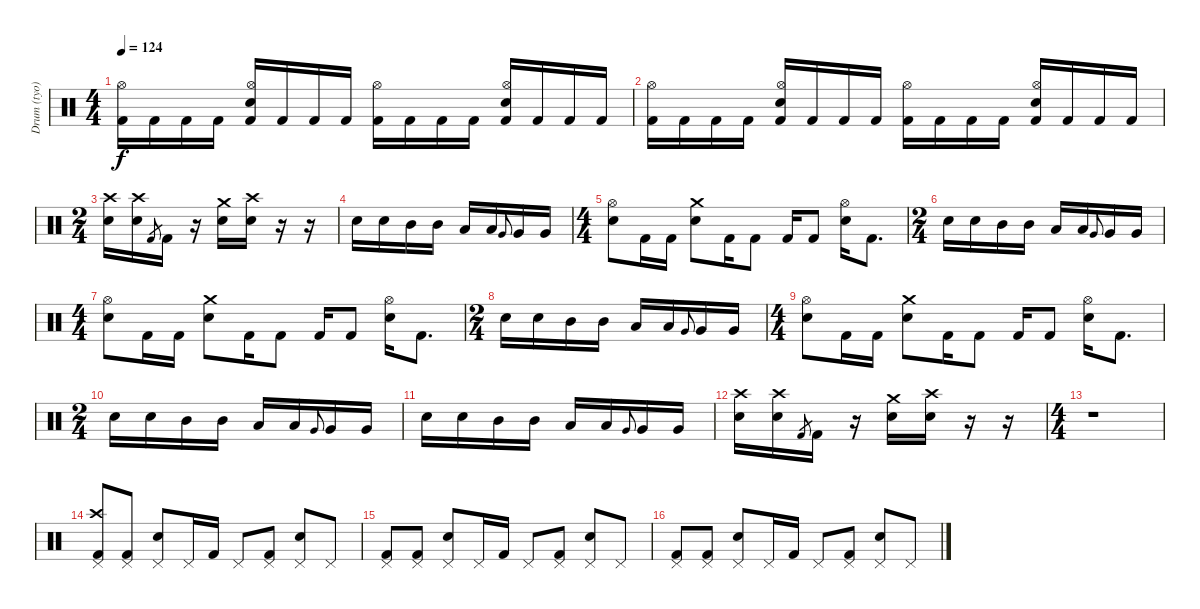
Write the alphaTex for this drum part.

\track ("Drum (tyo)" "Drum (tyo)") {instrument percussion}
\staff {score}
\articulation defaults
\ts (4 4)
\tempo 124
\clef neutral
\ks c
("Kick (hit) 2" "Hi-Hat (open)").16{dy f} "Kick (hit) 2".16 "Kick (hit) 2".16 "Kick (hit) 2".16 ("Kick (hit) 2" "Electric Snare (hit)" "Hi-Hat (open)").16 "Kick (hit) 2".16 "Kick (hit) 2".16 "Kick (hit) 2".16 ("Kick (hit) 2" "Hi-Hat (open)").16 "Kick (hit) 2".16 "Kick (hit) 2".16 "Kick (hit) 2".16 ("Kick (hit) 2" "Hi-Hat (open)" "Electric Snare (hit)").16 "Kick (hit) 2".16 "Kick (hit) 2".16 "Kick (hit) 2".16 |
("Kick (hit) 2" "Hi-Hat (open)").16 "Kick (hit) 2".16 "Kick (hit) 2".16 "Kick (hit) 2".16 ("Kick (hit) 2" "Electric Snare (hit)" "Hi-Hat (open)").16 "Kick (hit) 2".16 "Kick (hit) 2".16 "Kick (hit) 2".16 ("Kick (hit) 2" "Hi-Hat (open)").16 "Kick (hit) 2".16 "Kick (hit) 2".16 "Kick (hit) 2".16 ("Kick (hit) 2" "Hi-Hat (open)" "Electric Snare (hit)").16 "Kick (hit) 2".16 "Kick (hit) 2".16 "Kick (hit) 2".16 |
\ts (2 4)
("Electric Snare (hit)" "Crash high (hit)").16 ("Electric Snare (hit)" "Crash high (hit)").16 "Kick (hit) 2".8{gr} "Kick (hit) 2".16 r.16 ("Electric Snare (hit)" "Crash medium (hit)").16 ("Electric Snare (hit)" "Crash high (hit)").16 r.16 r.16 |
"Electric Snare (hit)".16 "Electric Snare (hit)".16 "Mid Tom (hit)".16 "Mid Tom (hit)".16 "Low Tom (hit)".16 "Low Tom (hit)".16 "Very Low Tom (hit)".8{gr onbeat} "Very Low Tom (hit)".16 "Very Low Tom (hit)".16 |
\ts (4 4)
("Electric Snare (hit)" "Hi-Hat (open)").8 "Kick (hit) 2".16 "Kick (hit) 2".16 ("Electric Snare (hit)" "Crash medium (hit)").8 "Kick (hit) 2".16 "Kick (hit) 2".8 "Kick (hit) 2".16 "Kick (hit) 2".8 ("Electric Snare (hit)" "Hi-Hat (open)").16 "Kick (hit) 2".8{d} |
\ts (2 4)
"Electric Snare (hit)".16 "Electric Snare (hit)".16 "Mid Tom (hit)".16 "Mid Tom (hit)".16 "Low Tom (hit)".16 "Low Tom (hit)".16 "Very Low Tom (hit)".8{gr onbeat} "Very Low Tom (hit)".16 "Very Low Tom (hit)".16 |
\ts (4 4)
("Electric Snare (hit)" "Hi-Hat (open)").8 "Kick (hit) 2".16 "Kick (hit) 2".16 ("Electric Snare (hit)" "Crash medium (hit)").8 "Kick (hit) 2".16 "Kick (hit) 2".8 "Kick (hit) 2".16 "Kick (hit) 2".8 ("Electric Snare (hit)" "Hi-Hat (open)").16 "Kick (hit) 2".8{d} |
\ts (2 4)
"Electric Snare (hit)".16 "Electric Snare (hit)".16 "Mid Tom (hit)".16 "Mid Tom (hit)".16 "Low Tom (hit)".16 "Low Tom (hit)".16 "Very Low Tom (hit)".8{gr onbeat} "Very Low Tom (hit)".16 "Very Low Tom (hit)".16 |
\ts (4 4)
("Electric Snare (hit)" "Hi-Hat (open)").8 "Kick (hit) 2".16 "Kick (hit) 2".16 ("Electric Snare (hit)" "Crash medium (hit)").8 "Kick (hit) 2".16 "Kick (hit) 2".8 "Kick (hit) 2".16 "Kick (hit) 2".8 ("Electric Snare (hit)" "Hi-Hat (open)").16 "Kick (hit) 2".8{d} |
\ts (2 4)
"Electric Snare (hit)".16 "Electric Snare (hit)".16 "Mid Tom (hit)".16 "Mid Tom (hit)".16 "Low Tom (hit)".16 "Low Tom (hit)".16 "Very Low Tom (hit)".8{gr onbeat} "Very Low Tom (hit)".16 "Very Low Tom (hit)".16 |
"Electric Snare (hit)".16 "Electric Snare (hit)".16 "Mid Tom (hit)".16 "Mid Tom (hit)".16 "Low Tom (hit)".16 "Low Tom (hit)".16 "Very Low Tom (hit)".8{gr onbeat} "Very Low Tom (hit)".16 "Very Low Tom (hit)".16 |
("Electric Snare (hit)" "Crash high (hit)").16 ("Electric Snare (hit)" "Crash high (hit)").16 "Kick (hit) 2".8{gr} "Kick (hit) 2".16 r.16 ("Electric Snare (hit)" "Crash medium (hit)").16 ("Electric Snare (hit)" "Crash high (hit)").16 r.16 r.16 |
\ts (4 4)
r.1 |
("Kick (hit) 2" "Pedal Hi-Hat (hit)" "Crash high (hit)").8 ("Kick (hit) 2" "Pedal Hi-Hat (hit)").8 ("Electric Snare (hit)" "Pedal Hi-Hat (hit)").8 "Pedal Hi-Hat (hit)".16 "Kick (hit) 2".16 "Pedal Hi-Hat (hit)".8 ("Kick (hit) 2" "Pedal Hi-Hat (hit)").8 ("Electric Snare (hit)" "Pedal Hi-Hat (hit)").8 "Pedal Hi-Hat (hit)".8 |
("Kick (hit) 2" "Pedal Hi-Hat (hit)").8 ("Kick (hit) 2" "Pedal Hi-Hat (hit)").8 ("Electric Snare (hit)" "Pedal Hi-Hat (hit)").8 "Pedal Hi-Hat (hit)".16 "Kick (hit) 2".16 "Pedal Hi-Hat (hit)".8 ("Kick (hit) 2" "Pedal Hi-Hat (hit)").8 ("Electric Snare (hit)" "Pedal Hi-Hat (hit)").8 "Pedal Hi-Hat (hit)".8 |
("Kick (hit) 2" "Pedal Hi-Hat (hit)").8 ("Kick (hit) 2" "Pedal Hi-Hat (hit)").8 ("Electric Snare (hit)" "Pedal Hi-Hat (hit)").8 "Pedal Hi-Hat (hit)".16 "Kick (hit) 2".16 "Pedal Hi-Hat (hit)".8 ("Kick (hit) 2" "Pedal Hi-Hat (hit)").8 ("Electric Snare (hit)" "Pedal Hi-Hat (hit)").8 "Pedal Hi-Hat (hit)".8
